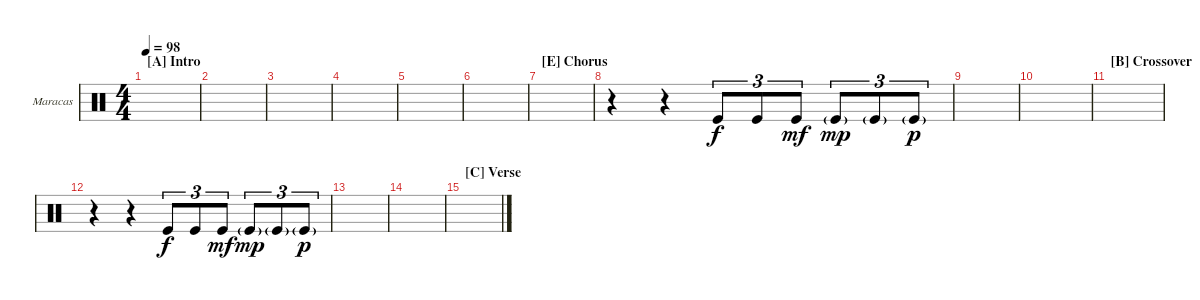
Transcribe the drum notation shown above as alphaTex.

\defaultSystemsLayout 4
\bracketExtendMode groupsimilarinstruments
\firstSystemTrackNameOrientation horizontal
\otherSystemsTrackNameOrientation horizontal
\track ("Maracas" "Maracas") {instrument percussion}
\staff {score}
\articulation defaults
\ts (4 4)
\section ("A" "Intro")
\tempo 98
\clef neutral
\scale
0.474178
\ks c
|
\scale
0.262911 |
\scale
0.262911 |
\scale
0.333333 |
\scale
0.333333 |
\scale
0.333333 |
\section ("E" "Chorus")
\scale
0.333333 |
\scale
0.333333 r.4 r.4 "Kick (hit)".8{tu (3 2)} "Kick (hit)".8{tu (3 2)} "Kick (hit)".8{tu (3 2) dy mf} "Kick (hit)"{g}.8{tu (3 2) dy mp} "Kick (hit)"{g}.8{tu (3 2)} "Kick (hit)"{g}.8{tu (3 2) dy p} |
\scale
0.333333 |
|
\section ("B" "Crossover")
|
r.4 r.4 "Kick (hit)".8{tu (3 2) dy f} "Kick (hit)".8{tu (3 2)} "Kick (hit)".8{tu (3 2) dy mf} "Kick (hit)"{g}.8{tu (3 2) dy mp} "Kick (hit)"{g}.8{tu (3 2)} "Kick (hit)"{g}.8{tu (3 2) dy p} |
|
|
\section ("C" "Verse")
